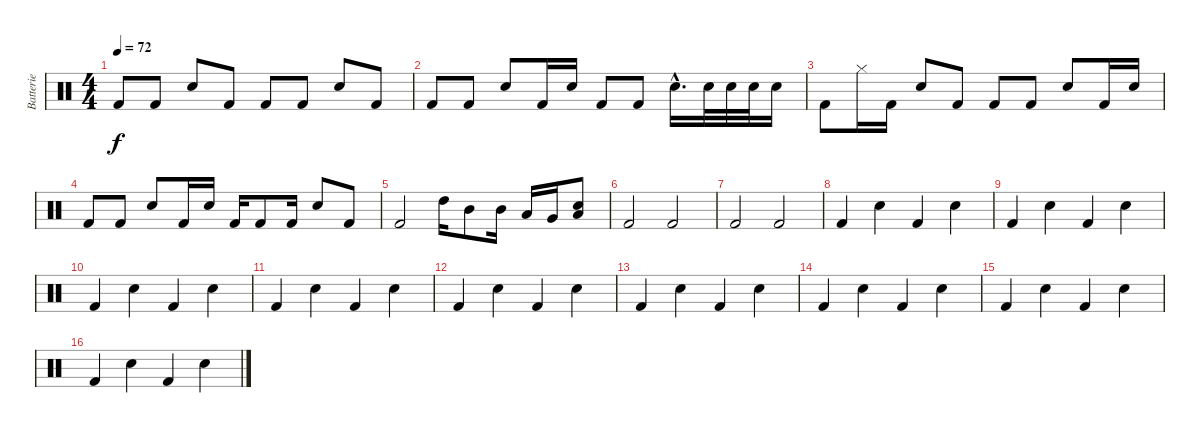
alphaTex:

\track ("Batterie" "Batterie") {instrument percussion}
\staff {score}
\articulation defaults
\ts (4 4)
\tempo 72
\clef neutral
\ks c "Kick (hit) 2".8{dy f} "Kick (hit) 2".8 "Electric Snare (hit)".8 "Kick (hit) 2".8 "Kick (hit) 2".8 "Kick (hit) 2".8 "Electric Snare (hit)".8 "Kick (hit) 2".8
|
"Kick (hit) 2".8 "Kick (hit) 2".8 "Electric Snare (hit)".8 "Kick (hit) 2".16 "Electric Snare (hit)".16 "Kick (hit) 2".8 "Kick (hit) 2".8 "Electric Snare (hit)"{hac}.16{d} "Electric Snare (hit)".32 "Electric Snare (hit)".32 "Electric Snare (hit)".32 "Electric Snare (hit)".16 |
"Kick (hit) 2".8 "Hi-Hat (closed)".16 "Kick (hit) 2".16 "Electric Snare (hit)".8 "Kick (hit) 2".8 "Kick (hit) 2".8 "Kick (hit) 2".8 "Electric Snare (hit)".8 "Kick (hit) 2".16 "Electric Snare (hit)".16 |
"Kick (hit) 2".8 "Kick (hit) 2".8 "Electric Snare (hit)".8 "Kick (hit) 2".16 "Electric Snare (hit)".16 "Kick (hit) 2".16 "Kick (hit) 2".8 "Kick (hit) 2".16 "Electric Snare (hit)".8 "Kick (hit) 2".8 |
"Kick (hit) 2".2 "High Tom (hit)".16 "Mid Tom (hit)".8 "Mid Tom (hit)".16 "Low Tom (hit)".16 "Very Low Tom (hit)".16 ("Electric Snare (hit)" "Low Floor Tom (hit)").8 |
"Kick (hit) 2".2 "Kick (hit) 2".2 |
"Kick (hit) 2".2 "Kick (hit) 2".2 |
"Kick (hit) 2".4 "Electric Snare (hit)".4 "Kick (hit) 2".4 "Electric Snare (hit)".4 |
"Kick (hit) 2".4 "Electric Snare (hit)".4 "Kick (hit) 2".4 "Electric Snare (hit)".4 |
"Kick (hit) 2".4 "Electric Snare (hit)".4 "Kick (hit) 2".4 "Electric Snare (hit)".4 |
"Kick (hit) 2".4 "Electric Snare (hit)".4 "Kick (hit) 2".4 "Electric Snare (hit)".4 |
"Kick (hit) 2".4 "Electric Snare (hit)".4 "Kick (hit) 2".4 "Electric Snare (hit)".4 |
"Kick (hit) 2".4 "Electric Snare (hit)".4 "Kick (hit) 2".4 "Electric Snare (hit)".4 |
"Kick (hit) 2".4 "Electric Snare (hit)".4 "Kick (hit) 2".4 "Electric Snare (hit)".4 |
"Kick (hit) 2".4 "Electric Snare (hit)".4 "Kick (hit) 2".4 "Electric Snare (hit)".4 |
"Kick (hit) 2".4 "Electric Snare (hit)".4 "Kick (hit) 2".4 "Electric Snare (hit)".4
